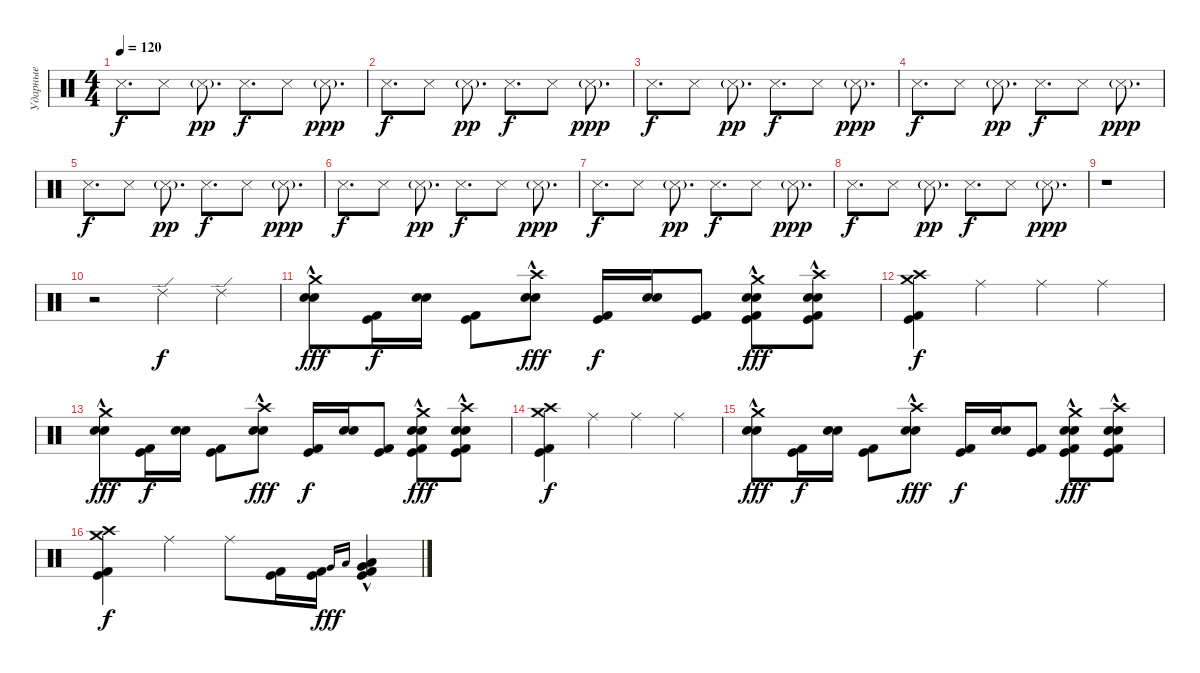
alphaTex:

\track ("Ударные" "Ударные") {instrument percussion}
\staff {score}
\articulation defaults
\ts (4 4)
\tempo 120
\clef neutral
\ks c "Snare (side stick) 3".8{d dy f} "Snare (side stick) 3".8 "Snare (side stick) 3"{g}.8{d dy pp} "Snare (side stick) 3".8{d dy f} "Snare (side stick) 3".8 "Snare (side stick) 3"{g}.8{d dy ppp}
|
"Snare (side stick) 3".8{d dy f} "Snare (side stick) 3".8 "Snare (side stick) 3"{g}.8{d dy pp} "Snare (side stick) 3".8{d dy f} "Snare (side stick) 3".8 "Snare (side stick) 3"{g}.8{d dy ppp} |
"Snare (side stick) 3".8{d dy f} "Snare (side stick) 3".8 "Snare (side stick) 3"{g}.8{d dy pp} "Snare (side stick) 3".8{d dy f} "Snare (side stick) 3".8 "Snare (side stick) 3"{g}.8{d dy ppp} |
"Snare (side stick) 3".8{d dy f} "Snare (side stick) 3".8 "Snare (side stick) 3"{g}.8{d dy pp} "Snare (side stick) 3".8{d dy f} "Snare (side stick) 3".8 "Snare (side stick) 3"{g}.8{d dy ppp} |
"Snare (side stick) 3".8{d dy f} "Snare (side stick) 3".8 "Snare (side stick) 3"{g}.8{d dy pp} "Snare (side stick) 3".8{d dy f} "Snare (side stick) 3".8 "Snare (side stick) 3"{g}.8{d dy ppp} |
"Snare (side stick) 3".8{d dy f} "Snare (side stick) 3".8 "Snare (side stick) 3"{g}.8{d dy pp} "Snare (side stick) 3".8{d dy f} "Snare (side stick) 3".8 "Snare (side stick) 3"{g}.8{d dy ppp} |
"Snare (side stick) 3".8{d dy f} "Snare (side stick) 3".8 "Snare (side stick) 3"{g}.8{d dy pp} "Snare (side stick) 3".8{d dy f} "Snare (side stick) 3".8 "Snare (side stick) 3"{g}.8{d dy ppp} |
"Snare (side stick) 3".8{d dy f} "Snare (side stick) 3".8 "Snare (side stick) 3"{g}.8{d dy pp} "Snare (side stick) 3".8{d dy f} "Snare (side stick) 3".8 "Snare (side stick) 3"{g}.8{d dy ppp} |
r.1 |
r.2 "Ride (edge) 2".4{dy f} "Ride (edge) 2".4 |
("Crash medium (hit)" "Snare (hit) 2"{hac} "Electric Snare (hit)"{hac}).8{dy fff} ("Kick (hit)" "Kick (hit) 2").16{dy f} ("Snare (hit) 2" "Electric Snare (hit)").16 ("Kick (hit)" "Kick (hit) 2").8 ("Crash high (hit)" "Snare (hit) 2"{hac} "Electric Snare (hit)"{hac}).8{dy fff} ("Kick (hit)" "Kick (hit) 2").16{dy f} ("Snare (hit) 2" "Electric Snare (hit)").16 ("Kick (hit)" "Kick (hit) 2").8 ("Crash medium (hit)" "Kick (hit)" "Kick (hit) 2" "Snare (hit) 2"{hac} "Electric Snare (hit)"{hac}).8{dy fff} ("Crash high (hit)" "Kick (hit)" "Kick (hit) 2" "Snare (hit) 2"{hac} "Electric Snare (hit)"{hac}).8 |
("Crash high (hit)" "Kick (hit)" "Kick (hit) 2" "Crash medium (hit)").4{dy f} "Ride (middle)".4 "Ride (middle)".4 "Ride (middle)".4 |
("Crash medium (hit)" "Snare (hit) 2"{hac} "Electric Snare (hit)"{hac}).8{dy fff} ("Kick (hit)" "Kick (hit) 2").16{dy f} ("Snare (hit) 2" "Electric Snare (hit)").16 ("Kick (hit)" "Kick (hit) 2").8 ("Crash high (hit)" "Snare (hit) 2"{hac} "Electric Snare (hit)"{hac}).8{dy fff} ("Kick (hit)" "Kick (hit) 2").16{dy f} ("Snare (hit) 2" "Electric Snare (hit)").16 ("Kick (hit)" "Kick (hit) 2").8 ("Crash medium (hit)" "Kick (hit)" "Kick (hit) 2" "Snare (hit) 2"{hac} "Electric Snare (hit)"{hac}).8{dy fff} ("Crash high (hit)" "Kick (hit)" "Kick (hit) 2" "Snare (hit) 2"{hac} "Electric Snare (hit)"{hac}).8 |
("Crash high (hit)" "Kick (hit)" "Kick (hit) 2" "Crash medium (hit)").4{dy f} "Ride (middle)".4 "Ride (middle)".4 "Ride (middle)".4 |
("Crash medium (hit)" "Snare (hit) 2"{hac} "Electric Snare (hit)"{hac}).8{dy fff} ("Kick (hit)" "Kick (hit) 2").16{dy f} ("Snare (hit) 2" "Electric Snare (hit)").16 ("Kick (hit)" "Kick (hit) 2").8 ("Crash high (hit)" "Snare (hit) 2"{hac} "Electric Snare (hit)"{hac}).8{dy fff} ("Kick (hit)" "Kick (hit) 2").16{dy f} ("Snare (hit) 2" "Electric Snare (hit)").16 ("Kick (hit)" "Kick (hit) 2").8 ("Crash medium (hit)" "Kick (hit)" "Kick (hit) 2" "Snare (hit) 2"{hac} "Electric Snare (hit)"{hac}).8{dy fff} ("Crash high (hit)" "Kick (hit)" "Kick (hit) 2" "Snare (hit) 2"{hac} "Electric Snare (hit)"{hac}).8 |
("Crash high (hit)" "Kick (hit)" "Kick (hit) 2" "Crash medium (hit)").4{dy f} "Ride (middle)".4 "Ride (middle)".8 ("Kick (hit)" "Kick (hit) 2").16 ("Kick (hit)" "Kick (hit) 2").16 "Very Low Tom (hit)".16{gr onbeat dy fff} "Low Floor Tom (hit)".16{gr onbeat} ("Kick (hit)" "Kick (hit) 2" "Very Low Tom (hit)"{hac} "Low Floor Tom (hit)"{hac}).4
